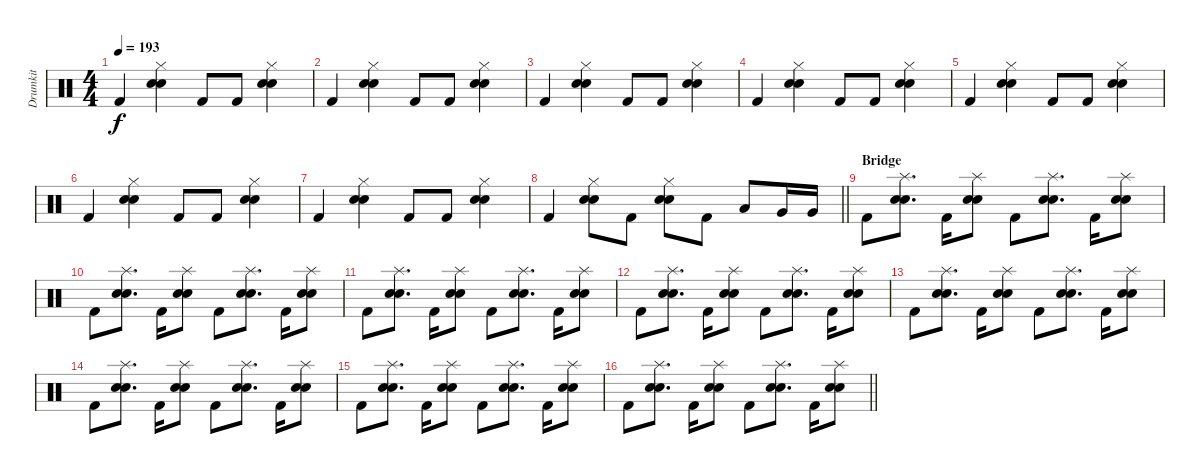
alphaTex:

\track ("Drumkit" "Drumkit") {instrument percussion}
\staff {score}
\articulation defaults
\ts (4 4)
\tempo 193
\clef neutral
\ks c "Kick (hit) 2".4{dy f}
("Hi-Hat (closed)" "Electric Snare (hit)" "Snare (hit) 2").4 "Kick (hit) 2".8 "Kick (hit) 2".8 ("Hi-Hat (closed)" "Electric Snare (hit)" "Snare (hit) 2").4 |
"Kick (hit) 2".4 ("Hi-Hat (closed)" "Electric Snare (hit)" "Snare (hit) 2").4 "Kick (hit) 2".8 "Kick (hit) 2".8 ("Hi-Hat (closed)" "Electric Snare (hit)" "Snare (hit) 2").4 |
"Kick (hit) 2".4 ("Hi-Hat (closed)" "Electric Snare (hit)" "Snare (hit) 2").4 "Kick (hit) 2".8 "Kick (hit) 2".8 ("Hi-Hat (closed)" "Electric Snare (hit)" "Snare (hit) 2").4 |
"Kick (hit) 2".4 ("Hi-Hat (closed)" "Electric Snare (hit)" "Snare (hit) 2").4 "Kick (hit) 2".8 "Kick (hit) 2".8 ("Hi-Hat (closed)" "Electric Snare (hit)" "Snare (hit) 2").4 |
"Kick (hit) 2".4 ("Hi-Hat (closed)" "Electric Snare (hit)" "Snare (hit) 2").4 "Kick (hit) 2".8 "Kick (hit) 2".8 ("Hi-Hat (closed)" "Electric Snare (hit)" "Snare (hit) 2").4 |
"Kick (hit) 2".4 ("Hi-Hat (closed)" "Electric Snare (hit)" "Snare (hit) 2").4 "Kick (hit) 2".8 "Kick (hit) 2".8 ("Hi-Hat (closed)" "Electric Snare (hit)" "Snare (hit) 2").4 |
"Kick (hit) 2".4 ("Hi-Hat (closed)" "Electric Snare (hit)" "Snare (hit) 2").4 "Kick (hit) 2".8 "Kick (hit) 2".8 ("Hi-Hat (closed)" "Electric Snare (hit)" "Snare (hit) 2").4 |
\barLineRight lightlight "Kick (hit) 2".4
("Hi-Hat (closed)" "Electric Snare (hit)" "Snare (hit) 2").8 "Kick (hit) 2".8 ("Hi-Hat (closed)" "Electric Snare (hit)" "Snare (hit) 2").8 "Kick (hit) 2".8 "Low Tom (hit)".8 "Very Low Tom (hit)".16 "Very Low Tom (hit)".16 |
\section ("" "Bridge")
"Kick (hit) 2".8 ("Splash (hit)" "Electric Snare (hit)" "Snare (hit) 2").8{d} "Kick (hit) 2".16 ("Splash (hit)" "Electric Snare (hit)" "Snare (hit) 2").8 "Kick (hit) 2".8 ("Splash (hit)" "Electric Snare (hit)" "Snare (hit) 2").8{d} "Kick (hit) 2".16 ("Splash (hit)" "Electric Snare (hit)" "Snare (hit) 2").8 |
"Kick (hit) 2".8 ("Splash (hit)" "Electric Snare (hit)" "Snare (hit) 2").8{d} "Kick (hit) 2".16 ("Splash (hit)" "Electric Snare (hit)" "Snare (hit) 2").8 "Kick (hit) 2".8 ("Splash (hit)" "Electric Snare (hit)" "Snare (hit) 2").8{d} "Kick (hit) 2".16 ("Splash (hit)" "Electric Snare (hit)" "Snare (hit) 2").8 |
"Kick (hit) 2".8 ("Splash (hit)" "Electric Snare (hit)" "Snare (hit) 2").8{d} "Kick (hit) 2".16 ("Splash (hit)" "Electric Snare (hit)" "Snare (hit) 2").8 "Kick (hit) 2".8 ("Splash (hit)" "Electric Snare (hit)" "Snare (hit) 2").8{d} "Kick (hit) 2".16 ("Splash (hit)" "Electric Snare (hit)" "Snare (hit) 2").8 |
"Kick (hit) 2".8 ("Splash (hit)" "Electric Snare (hit)" "Snare (hit) 2").8{d} "Kick (hit) 2".16 ("Splash (hit)" "Electric Snare (hit)" "Snare (hit) 2").8 "Kick (hit) 2".8 ("Splash (hit)" "Electric Snare (hit)" "Snare (hit) 2").8{d} "Kick (hit) 2".16 ("Splash (hit)" "Electric Snare (hit)" "Snare (hit) 2").8 |
"Kick (hit) 2".8 ("Splash (hit)" "Electric Snare (hit)" "Snare (hit) 2").8{d} "Kick (hit) 2".16 ("Splash (hit)" "Electric Snare (hit)" "Snare (hit) 2").8 "Kick (hit) 2".8 ("Splash (hit)" "Electric Snare (hit)" "Snare (hit) 2").8{d} "Kick (hit) 2".16 ("Splash (hit)" "Electric Snare (hit)" "Snare (hit) 2").8 |
"Kick (hit) 2".8 ("Splash (hit)" "Electric Snare (hit)" "Snare (hit) 2").8{d} "Kick (hit) 2".16 ("Splash (hit)" "Electric Snare (hit)" "Snare (hit) 2").8 "Kick (hit) 2".8 ("Splash (hit)" "Electric Snare (hit)" "Snare (hit) 2").8{d} "Kick (hit) 2".16 ("Splash (hit)" "Electric Snare (hit)" "Snare (hit) 2").8 |
"Kick (hit) 2".8 ("Splash (hit)" "Electric Snare (hit)" "Snare (hit) 2").8{d} "Kick (hit) 2".16 ("Splash (hit)" "Electric Snare (hit)" "Snare (hit) 2").8 "Kick (hit) 2".8 ("Splash (hit)" "Electric Snare (hit)" "Snare (hit) 2").8{d} "Kick (hit) 2".16 ("Splash (hit)" "Electric Snare (hit)" "Snare (hit) 2").8 |
\barLineRight lightlight "Kick (hit) 2".8
("Splash (hit)" "Electric Snare (hit)" "Snare (hit) 2").8{d} "Kick (hit) 2".16 ("Splash (hit)" "Electric Snare (hit)" "Snare (hit) 2").8 "Kick (hit) 2".8 ("Splash (hit)" "Electric Snare (hit)" "Snare (hit) 2").8{d} "Kick (hit) 2".16 ("Splash (hit)" "Electric Snare (hit)" "Snare (hit) 2").8
